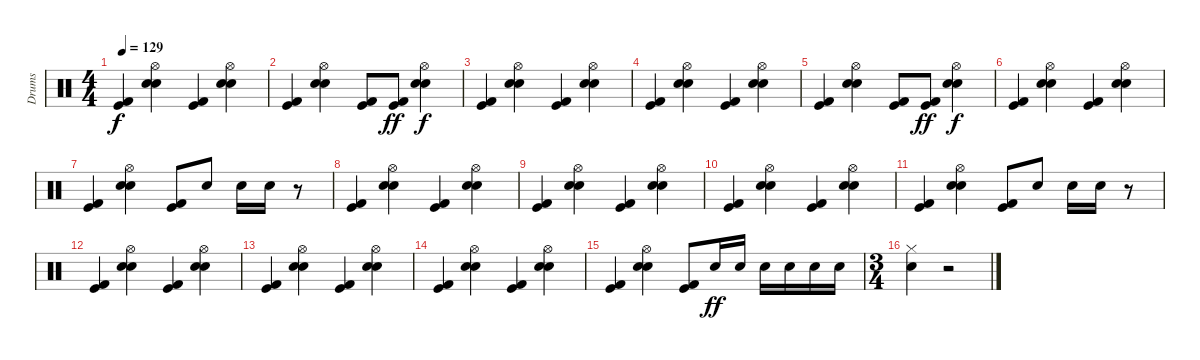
\track ("Drums" "Drums") {instrument percussion}
\staff {score}
\articulation defaults
\ts (4 4)
\tempo 129
\clef neutral
\ks c
("Kick (hit)" "Kick (hit) 2").4{dy f} ("Electric Snare (hit)" "Hi-Hat (open)" "Snare (hit) 2").4 ("Kick (hit)" "Kick (hit) 2").4 ("Electric Snare (hit)" "Hi-Hat (open)" "Snare (hit) 2").4 |
("Kick (hit)" "Kick (hit) 2").4 ("Electric Snare (hit)" "Hi-Hat (open)" "Snare (hit) 2").4 ("Kick (hit)" "Kick (hit) 2").8 ("Kick (hit) 2" "Kick (hit)").8{dy ff} ("Electric Snare (hit)" "Hi-Hat (open)" "Snare (hit) 2").4{dy f} |
("Kick (hit)" "Kick (hit) 2").4 ("Electric Snare (hit)" "Hi-Hat (open)" "Snare (hit) 2").4 ("Kick (hit)" "Kick (hit) 2").4 ("Electric Snare (hit)" "Hi-Hat (open)" "Snare (hit) 2").4 |
("Kick (hit)" "Kick (hit) 2").4 ("Electric Snare (hit)" "Hi-Hat (open)" "Snare (hit) 2").4 ("Kick (hit)" "Kick (hit) 2").4 ("Electric Snare (hit)" "Hi-Hat (open)" "Snare (hit) 2").4 |
("Kick (hit)" "Kick (hit) 2").4 ("Electric Snare (hit)" "Hi-Hat (open)" "Snare (hit) 2").4 ("Kick (hit)" "Kick (hit) 2").8 ("Kick (hit) 2" "Kick (hit)").8{dy ff} ("Electric Snare (hit)" "Hi-Hat (open)" "Snare (hit) 2").4{dy f} |
("Kick (hit)" "Kick (hit) 2").4 ("Electric Snare (hit)" "Hi-Hat (open)" "Snare (hit) 2").4 ("Kick (hit)" "Kick (hit) 2").4 ("Electric Snare (hit)" "Hi-Hat (open)" "Snare (hit) 2").4 |
("Kick (hit)" "Kick (hit) 2").4 ("Electric Snare (hit)" "Hi-Hat (open)" "Snare (hit) 2").4 ("Kick (hit)" "Kick (hit) 2").8 "Snare (hit) 2".8 "Snare (hit) 2".16 "Snare (hit) 2".16 r.8 |
("Kick (hit)" "Kick (hit) 2").4 ("Electric Snare (hit)" "Hi-Hat (open)" "Snare (hit) 2").4 ("Kick (hit)" "Kick (hit) 2").4 ("Electric Snare (hit)" "Hi-Hat (open)" "Snare (hit) 2").4 |
("Kick (hit)" "Kick (hit) 2").4 ("Electric Snare (hit)" "Hi-Hat (open)" "Snare (hit) 2").4 ("Kick (hit)" "Kick (hit) 2").4 ("Electric Snare (hit)" "Hi-Hat (open)" "Snare (hit) 2").4 |
("Kick (hit)" "Kick (hit) 2").4 ("Electric Snare (hit)" "Hi-Hat (open)" "Snare (hit) 2").4 ("Kick (hit)" "Kick (hit) 2").4 ("Electric Snare (hit)" "Hi-Hat (open)" "Snare (hit) 2").4 |
("Kick (hit)" "Kick (hit) 2").4 ("Electric Snare (hit)" "Hi-Hat (open)" "Snare (hit) 2").4 ("Kick (hit)" "Kick (hit) 2").8 "Snare (hit) 2".8 "Snare (hit) 2".16 "Snare (hit) 2".16 r.8 |
("Kick (hit)" "Kick (hit) 2").4 ("Electric Snare (hit)" "Hi-Hat (open)" "Snare (hit) 2").4 ("Kick (hit)" "Kick (hit) 2").4 ("Electric Snare (hit)" "Hi-Hat (open)" "Snare (hit) 2").4 |
("Kick (hit)" "Kick (hit) 2").4 ("Electric Snare (hit)" "Hi-Hat (open)" "Snare (hit) 2").4 ("Kick (hit)" "Kick (hit) 2").4 ("Electric Snare (hit)" "Hi-Hat (open)" "Snare (hit) 2").4 |
("Kick (hit)" "Kick (hit) 2").4 ("Electric Snare (hit)" "Hi-Hat (open)" "Snare (hit) 2").4 ("Kick (hit)" "Kick (hit) 2").4 ("Electric Snare (hit)" "Hi-Hat (open)" "Snare (hit) 2").4 |
("Kick (hit)" "Kick (hit) 2").4 ("Electric Snare (hit)" "Hi-Hat (open)" "Snare (hit) 2").4 ("Kick (hit)" "Kick (hit) 2").8 "Snare (hit) 2".16{dy ff} "Snare (hit) 2".16 "Snare (hit) 2".16 "Snare (hit) 2".16 "Snare (hit) 2".16 "Snare (hit) 2".16 |
\ts (3 4)
("Snare (hit) 2" "Hi-Hat (closed)").4 r.2
